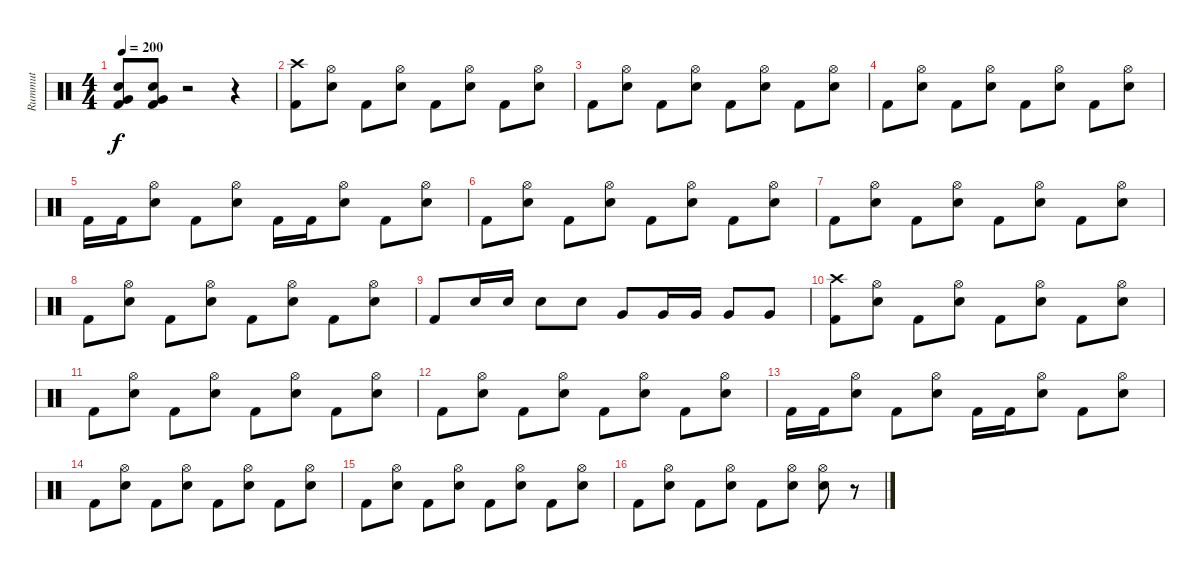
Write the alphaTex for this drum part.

\track ("Rummut" "Rummut") {instrument percussion}
\staff {score}
\articulation defaults
\ts (4 4)
\tempo 200
\clef neutral
\ks c
("Electric Snare (hit)" "Very Low Tom (hit)" "Kick (hit) 2").8{dy f} ("Electric Snare (hit)" "Very Low Tom (hit)" "Kick (hit) 2").8 r.2 r.4 |
("Crash high (hit)" "Kick (hit) 2").8 ("Hi-Hat (open)" "Electric Snare (hit)").8 "Kick (hit) 2".8 ("Hi-Hat (open)" "Electric Snare (hit)").8 "Kick (hit) 2".8 ("Hi-Hat (open)" "Electric Snare (hit)").8 "Kick (hit) 2".8 ("Hi-Hat (open)" "Electric Snare (hit)").8 |
"Kick (hit) 2".8 ("Hi-Hat (open)" "Electric Snare (hit)").8 "Kick (hit) 2".8 ("Hi-Hat (open)" "Electric Snare (hit)").8 "Kick (hit) 2".8 ("Hi-Hat (open)" "Electric Snare (hit)").8 "Kick (hit) 2".8 ("Hi-Hat (open)" "Electric Snare (hit)").8 |
"Kick (hit) 2".8 ("Hi-Hat (open)" "Electric Snare (hit)").8 "Kick (hit) 2".8 ("Hi-Hat (open)" "Electric Snare (hit)").8 "Kick (hit) 2".8 ("Hi-Hat (open)" "Electric Snare (hit)").8 "Kick (hit) 2".8 ("Hi-Hat (open)" "Electric Snare (hit)").8 |
"Kick (hit) 2".16 "Kick (hit) 2".16 ("Hi-Hat (open)" "Electric Snare (hit)").8 "Kick (hit) 2".8 ("Hi-Hat (open)" "Electric Snare (hit)").8 "Kick (hit) 2".16 "Kick (hit) 2".16 ("Hi-Hat (open)" "Electric Snare (hit)").8 "Kick (hit) 2".8 ("Hi-Hat (open)" "Electric Snare (hit)").8 |
"Kick (hit) 2".8 ("Hi-Hat (open)" "Electric Snare (hit)").8 "Kick (hit) 2".8 ("Hi-Hat (open)" "Electric Snare (hit)").8 "Kick (hit) 2".8 ("Hi-Hat (open)" "Electric Snare (hit)").8 "Kick (hit) 2".8 ("Hi-Hat (open)" "Electric Snare (hit)").8 |
"Kick (hit) 2".8 ("Hi-Hat (open)" "Electric Snare (hit)").8 "Kick (hit) 2".8 ("Hi-Hat (open)" "Electric Snare (hit)").8 "Kick (hit) 2".8 ("Hi-Hat (open)" "Electric Snare (hit)").8 "Kick (hit) 2".8 ("Hi-Hat (open)" "Electric Snare (hit)").8 |
"Kick (hit) 2".8 ("Hi-Hat (open)" "Electric Snare (hit)").8 "Kick (hit) 2".8 ("Hi-Hat (open)" "Electric Snare (hit)").8 "Kick (hit) 2".8 ("Hi-Hat (open)" "Electric Snare (hit)").8 "Kick (hit) 2".8 ("Hi-Hat (open)" "Electric Snare (hit)").8 |
"Kick (hit) 2".8 "Electric Snare (hit)".16 "Electric Snare (hit)".16 "Electric Snare (hit)".8 "Electric Snare (hit)".8 "Very Low Tom (hit)".8 "Very Low Tom (hit)".16 "Very Low Tom (hit)".16 "Very Low Tom (hit)".8 "Very Low Tom (hit)".8 |
("Crash high (hit)" "Kick (hit) 2").8 ("Hi-Hat (open)" "Electric Snare (hit)").8 "Kick (hit) 2".8 ("Hi-Hat (open)" "Electric Snare (hit)").8 "Kick (hit) 2".8 ("Hi-Hat (open)" "Electric Snare (hit)").8 "Kick (hit) 2".8 ("Hi-Hat (open)" "Electric Snare (hit)").8 |
"Kick (hit) 2".8 ("Hi-Hat (open)" "Electric Snare (hit)").8 "Kick (hit) 2".8 ("Hi-Hat (open)" "Electric Snare (hit)").8 "Kick (hit) 2".8 ("Hi-Hat (open)" "Electric Snare (hit)").8 "Kick (hit) 2".8 ("Hi-Hat (open)" "Electric Snare (hit)").8 |
"Kick (hit) 2".8 ("Hi-Hat (open)" "Electric Snare (hit)").8 "Kick (hit) 2".8 ("Hi-Hat (open)" "Electric Snare (hit)").8 "Kick (hit) 2".8 ("Hi-Hat (open)" "Electric Snare (hit)").8 "Kick (hit) 2".8 ("Hi-Hat (open)" "Electric Snare (hit)").8 |
"Kick (hit) 2".16 "Kick (hit) 2".16 ("Hi-Hat (open)" "Electric Snare (hit)").8 "Kick (hit) 2".8 ("Hi-Hat (open)" "Electric Snare (hit)").8 "Kick (hit) 2".16 "Kick (hit) 2".16 ("Hi-Hat (open)" "Electric Snare (hit)").8 "Kick (hit) 2".8 ("Hi-Hat (open)" "Electric Snare (hit)").8 |
"Kick (hit) 2".8 ("Hi-Hat (open)" "Electric Snare (hit)").8 "Kick (hit) 2".8 ("Hi-Hat (open)" "Electric Snare (hit)").8 "Kick (hit) 2".8 ("Hi-Hat (open)" "Electric Snare (hit)").8 "Kick (hit) 2".8 ("Hi-Hat (open)" "Electric Snare (hit)").8 |
"Kick (hit) 2".8 ("Hi-Hat (open)" "Electric Snare (hit)").8 "Kick (hit) 2".8 ("Hi-Hat (open)" "Electric Snare (hit)").8 "Kick (hit) 2".8 ("Hi-Hat (open)" "Electric Snare (hit)").8 "Kick (hit) 2".8 ("Hi-Hat (open)" "Electric Snare (hit)").8 |
"Kick (hit) 2".8 ("Hi-Hat (open)" "Electric Snare (hit)").8 "Kick (hit) 2".8 ("Hi-Hat (open)" "Electric Snare (hit)").8 "Kick (hit) 2".8 ("Hi-Hat (open)" "Electric Snare (hit)").8 ("Hi-Hat (open)" "Electric Snare (hit)").8 r.8
